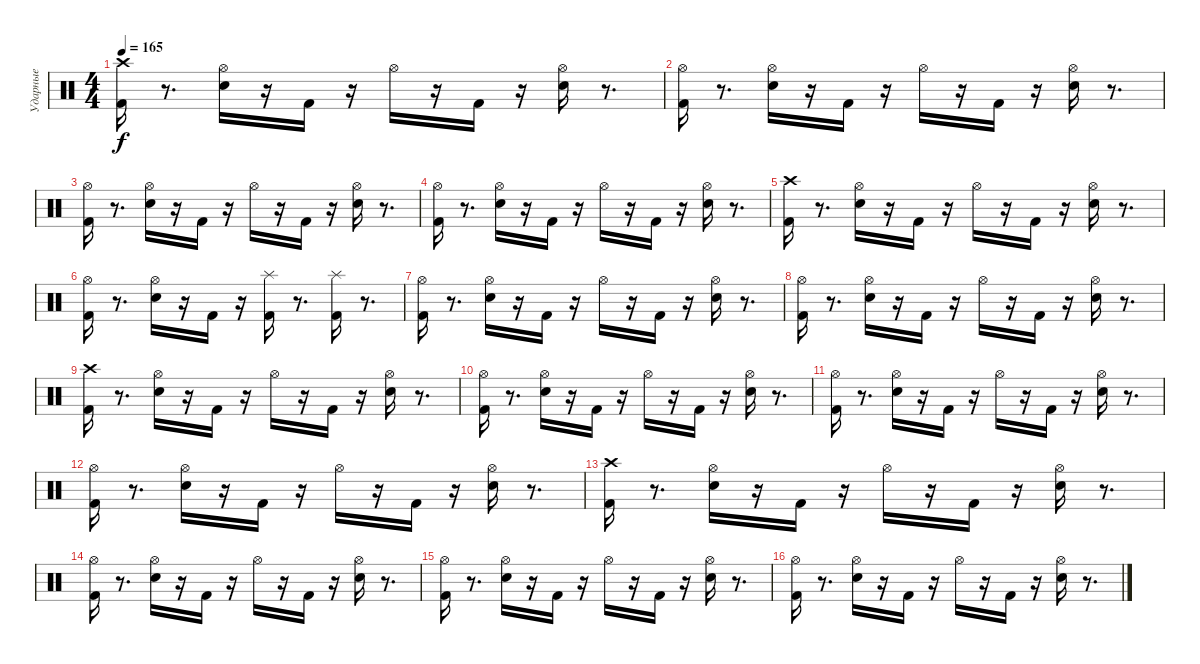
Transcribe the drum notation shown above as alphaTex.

\track ("Ударные" "Ударные") {instrument percussion}
\staff {score}
\articulation defaults
\ts (4 4)
\tempo 165
\clef neutral
\ks c
("Crash high (hit)" "Kick (hit) 2").16{dy f} r.8{d} ("Electric Snare (hit)" "Hi-Hat (open)").16 r.16 "Kick (hit) 2".16 r.16 "Hi-Hat (open)".16 r.16 "Kick (hit) 2".16 r.16 ("Electric Snare (hit)" "Hi-Hat (open)").16 r.8{d} |
("Hi-Hat (open)" "Kick (hit) 2").16 r.8{d} ("Electric Snare (hit)" "Hi-Hat (open)").16 r.16 "Kick (hit) 2".16 r.16 "Hi-Hat (open)".16 r.16 "Kick (hit) 2".16 r.16 ("Electric Snare (hit)" "Hi-Hat (open)").16 r.8{d} |
("Hi-Hat (open)" "Kick (hit) 2").16 r.8{d} ("Hi-Hat (open)" "Electric Snare (hit)").16 r.16 "Kick (hit) 2".16 r.16 "Hi-Hat (open)".16 r.16 "Kick (hit) 2".16 r.16 ("Electric Snare (hit)" "Hi-Hat (open)").16 r.8{d} |
("Kick (hit) 2" "Hi-Hat (open)").16 r.8{d} ("Hi-Hat (open)" "Electric Snare (hit)").16 r.16 "Kick (hit) 2".16 r.16 "Hi-Hat (open)".16 r.16 "Kick (hit) 2".16 r.16 ("Electric Snare (hit)" "Hi-Hat (open)").16 r.8{d} |
("Kick (hit) 2" "Crash high (hit)").16 r.8{d} ("Electric Snare (hit)" "Hi-Hat (open)").16 r.16 "Kick (hit) 2".16 r.16 "Hi-Hat (open)".16 r.16 "Kick (hit) 2".16 r.16 ("Electric Snare (hit)" "Hi-Hat (open)").16 r.8{d} |
("Kick (hit) 2" "Hi-Hat (open)").16 r.8{d} ("Electric Snare (hit)" "Hi-Hat (open)").16 r.16 "Kick (hit) 2".16 r.16 ("Splash (hit)" "Kick (hit) 2").16 r.8{d} ("Splash (hit)" "Kick (hit) 2").16 r.8{d} |
("Kick (hit) 2" "Hi-Hat (open)").16 r.8{d} ("Hi-Hat (open)" "Electric Snare (hit)").16 r.16 "Kick (hit) 2".16 r.16 "Hi-Hat (open)".16 r.16 "Kick (hit) 2".16 r.16 ("Electric Snare (hit)" "Hi-Hat (open)").16 r.8{d} |
("Kick (hit) 2" "Hi-Hat (open)").16 r.8{d} ("Hi-Hat (open)" "Electric Snare (hit)").16 r.16 "Kick (hit) 2".16 r.16 "Hi-Hat (open)".16 r.16 "Kick (hit) 2".16 r.16 ("Electric Snare (hit)" "Hi-Hat (open)").16 r.8{d} |
("Crash high (hit)" "Kick (hit) 2").16 r.8{d} ("Electric Snare (hit)" "Hi-Hat (open)").16 r.16 "Kick (hit) 2".16 r.16 "Hi-Hat (open)".16 r.16 "Kick (hit) 2".16 r.16 ("Electric Snare (hit)" "Hi-Hat (open)").16 r.8{d} |
("Hi-Hat (open)" "Kick (hit) 2").16 r.8{d} ("Electric Snare (hit)" "Hi-Hat (open)").16 r.16 "Kick (hit) 2".16 r.16 "Hi-Hat (open)".16 r.16 "Kick (hit) 2".16 r.16 ("Electric Snare (hit)" "Hi-Hat (open)").16 r.8{d} |
("Hi-Hat (open)" "Kick (hit) 2").16 r.8{d} ("Hi-Hat (open)" "Electric Snare (hit)").16 r.16 "Kick (hit) 2".16 r.16 "Hi-Hat (open)".16 r.16 "Kick (hit) 2".16 r.16 ("Electric Snare (hit)" "Hi-Hat (open)").16 r.8{d} |
("Hi-Hat (open)" "Kick (hit) 2").16 r.8{d} ("Hi-Hat (open)" "Electric Snare (hit)").16 r.16 "Kick (hit) 2".16 r.16 "Hi-Hat (open)".16 r.16 "Kick (hit) 2".16 r.16 ("Electric Snare (hit)" "Hi-Hat (open)").16 r.8{d} |
("Crash high (hit)" "Kick (hit) 2").16 r.8{d} ("Electric Snare (hit)" "Hi-Hat (open)").16 r.16 "Kick (hit) 2".16 r.16 "Hi-Hat (open)".16 r.16 "Kick (hit) 2".16 r.16 ("Electric Snare (hit)" "Hi-Hat (open)").16 r.8{d} |
("Hi-Hat (open)" "Kick (hit) 2").16 r.8{d} ("Electric Snare (hit)" "Hi-Hat (open)").16 r.16 "Kick (hit) 2".16 r.16 "Hi-Hat (open)".16 r.16 "Kick (hit) 2".16 r.16 ("Electric Snare (hit)" "Hi-Hat (open)").16 r.8{d} |
("Hi-Hat (open)" "Kick (hit) 2").16 r.8{d} ("Electric Snare (hit)" "Hi-Hat (open)").16 r.16 "Kick (hit) 2".16 r.16 "Hi-Hat (open)".16 r.16 "Kick (hit) 2".16 r.16 ("Electric Snare (hit)" "Hi-Hat (open)").16 r.8{d} |
("Hi-Hat (open)" "Kick (hit) 2").16 r.8{d} ("Electric Snare (hit)" "Hi-Hat (open)").16 r.16 "Kick (hit) 2".16 r.16 "Hi-Hat (open)".16 r.16 "Kick (hit) 2".16 r.16 ("Electric Snare (hit)" "Hi-Hat (open)").16 r.8{d}
